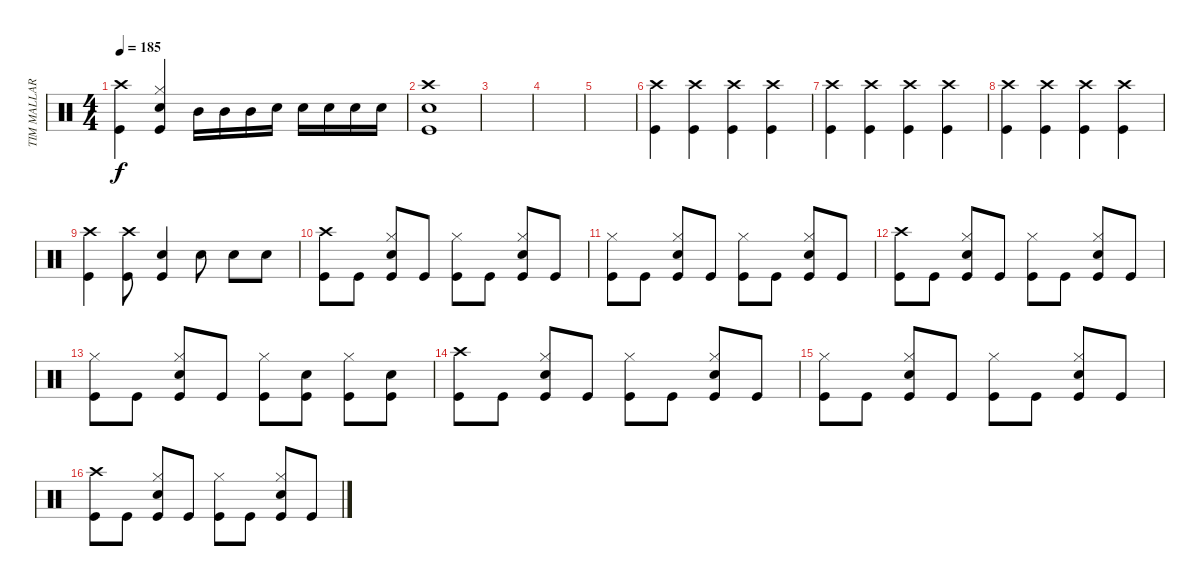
\track ("TIM MALLARE - drums" "TIM MALLAR") {instrument percussion}
\staff {score}
\articulation defaults
\ts (4 4)
\tempo 185
\clef neutral
\ks c
("Crash high (hit)" "Kick (hit)").4{dy f} ("Hi-Hat (closed)" "Electric Snare (hit)" "Kick (hit)").4 "Mid Tom (hit)".16 "Mid Tom (hit)".16 "Mid Tom (hit)".16 "Electric Snare (hit)".16 "Electric Snare (hit)".16 "Electric Snare (hit)".16 "Electric Snare (hit)".16 "Electric Snare (hit)".16 |
("Crash high (hit)" "Electric Snare (hit)" "Kick (hit)").1 |
|
|
|
("Crash high (hit)" "Kick (hit)").4 ("Crash high (hit)" "Kick (hit)").4 ("Crash high (hit)" "Kick (hit)").4 ("Crash high (hit)" "Kick (hit)").4 |
("Crash high (hit)" "Kick (hit)").4 ("Crash high (hit)" "Kick (hit)").4 ("Crash high (hit)" "Kick (hit)").4 ("Crash high (hit)" "Kick (hit)").4 |
("Crash high (hit)" "Kick (hit)").4 ("Crash high (hit)" "Kick (hit)").4 ("Crash high (hit)" "Kick (hit)").4 ("Crash high (hit)" "Kick (hit)").4 |
("Crash high (hit)" "Kick (hit)").4 ("Crash high (hit)" "Kick (hit)").8 ("Electric Snare (hit)" "Kick (hit)").4 "Electric Snare (hit)".8 "Electric Snare (hit)".8 "Electric Snare (hit)".8 |
("Crash high (hit)" "Kick (hit)").8 "Kick (hit)".8 ("Hi-Hat (closed)" "Electric Snare (hit)" "Kick (hit)").8 "Kick (hit)".8 ("Hi-Hat (closed)" "Kick (hit)").8 "Kick (hit)".8 ("Hi-Hat (closed)" "Electric Snare (hit)" "Kick (hit)").8 "Kick (hit)".8 |
("Hi-Hat (closed)" "Kick (hit)").8 "Kick (hit)".8 ("Hi-Hat (closed)" "Electric Snare (hit)" "Kick (hit)").8 "Kick (hit)".8 ("Hi-Hat (closed)" "Kick (hit)").8 "Kick (hit)".8 ("Hi-Hat (closed)" "Electric Snare (hit)" "Kick (hit)").8 "Kick (hit)".8 |
("Crash high (hit)" "Kick (hit)").8 "Kick (hit)".8 ("Hi-Hat (closed)" "Electric Snare (hit)" "Kick (hit)").8 "Kick (hit)".8 ("Hi-Hat (closed)" "Kick (hit)").8 "Kick (hit)".8 ("Hi-Hat (closed)" "Electric Snare (hit)" "Kick (hit)").8 "Kick (hit)".8 |
("Hi-Hat (closed)" "Kick (hit)").8 "Kick (hit)".8 ("Hi-Hat (closed)" "Electric Snare (hit)" "Kick (hit)").8 "Kick (hit)".8 ("Hi-Hat (closed)" "Kick (hit)").8 ("Electric Snare (hit)" "Kick (hit)").8 ("Hi-Hat (closed)" "Kick (hit)").8 ("Electric Snare (hit)" "Kick (hit)").8 |
("Crash high (hit)" "Kick (hit)").8 "Kick (hit)".8 ("Hi-Hat (closed)" "Electric Snare (hit)" "Kick (hit)").8 "Kick (hit)".8 ("Hi-Hat (closed)" "Kick (hit)").8 "Kick (hit)".8 ("Hi-Hat (closed)" "Electric Snare (hit)" "Kick (hit)").8 "Kick (hit)".8 |
("Hi-Hat (closed)" "Kick (hit)").8 "Kick (hit)".8 ("Hi-Hat (closed)" "Electric Snare (hit)" "Kick (hit)").8 "Kick (hit)".8 ("Hi-Hat (closed)" "Kick (hit)").8 "Kick (hit)".8 ("Hi-Hat (closed)" "Electric Snare (hit)" "Kick (hit)").8 "Kick (hit)".8 |
("Crash high (hit)" "Kick (hit)").8 "Kick (hit)".8 ("Hi-Hat (closed)" "Electric Snare (hit)" "Kick (hit)").8 "Kick (hit)".8 ("Hi-Hat (closed)" "Kick (hit)").8 "Kick (hit)".8 ("Hi-Hat (closed)" "Electric Snare (hit)" "Kick (hit)").8 "Kick (hit)".8
